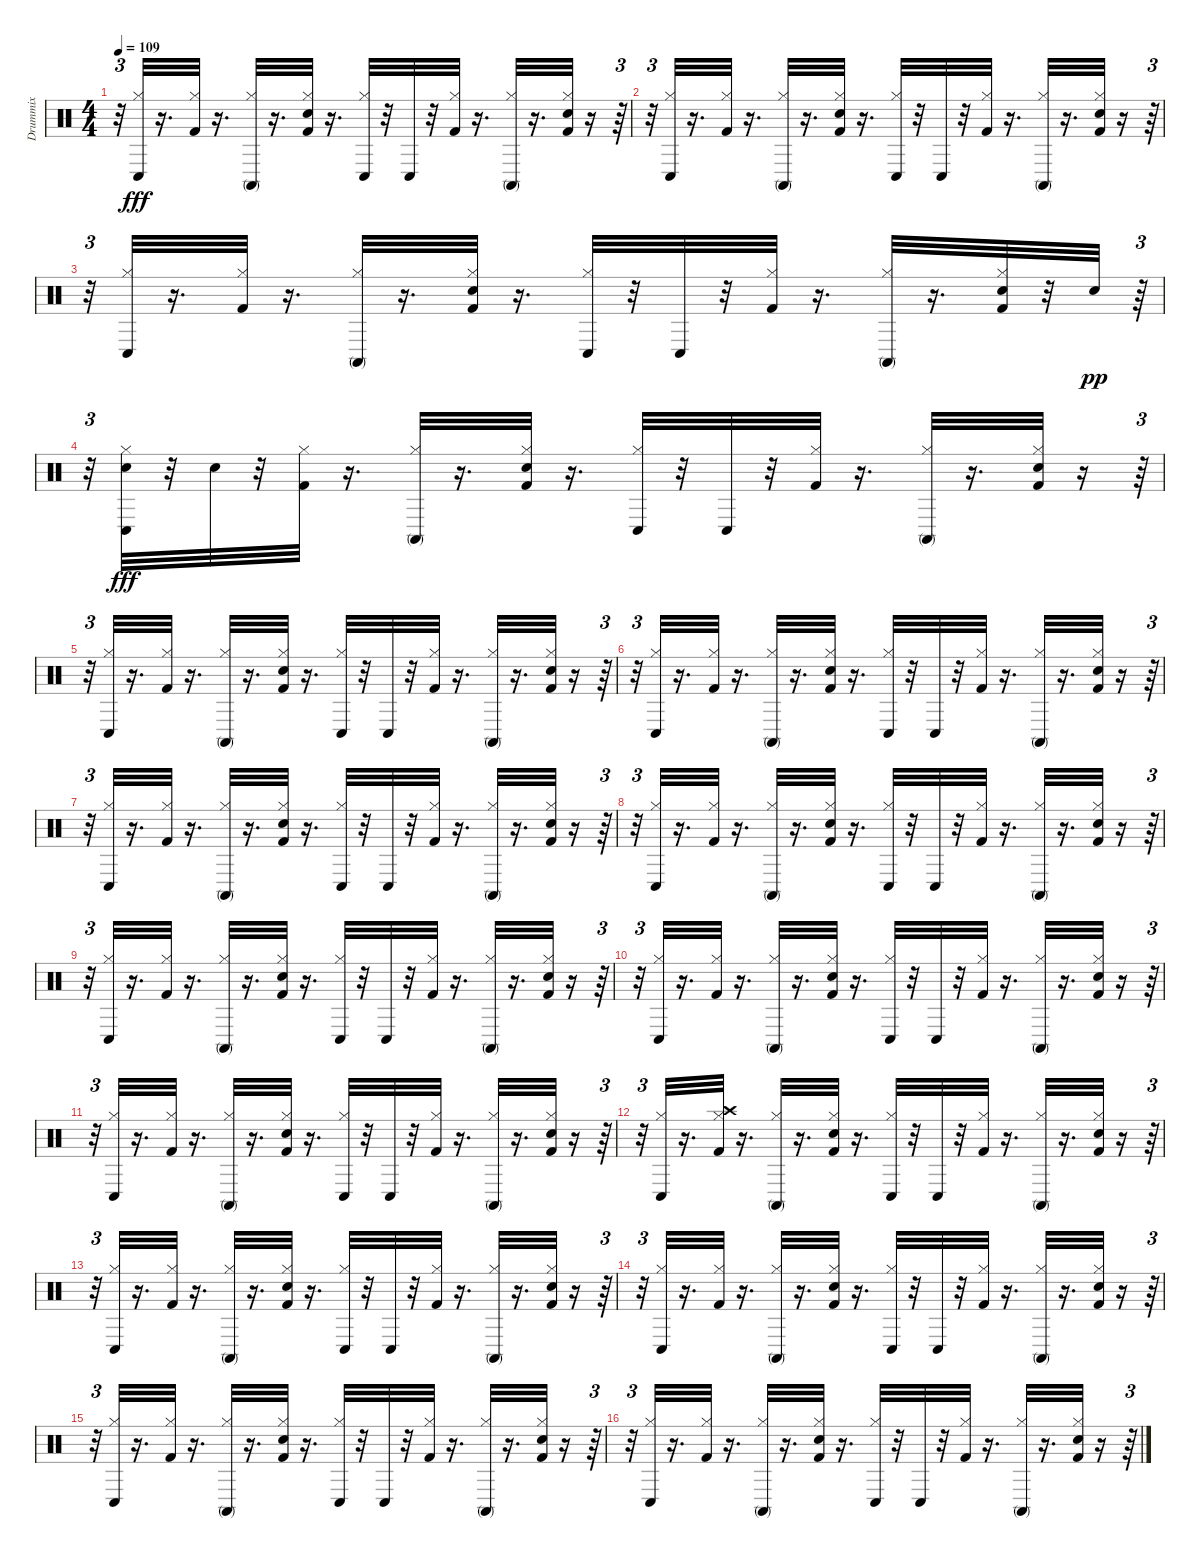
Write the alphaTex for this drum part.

\track ("Drummix" "Drummix") {instrument percussion}
\staff {score}
\articulation defaults
\ts (4 4)
\tempo 109
\clef neutral
\ks c
r.32{tu (3 2) dy fff} ("Hi-Hat (closed)" "Conga low (hit)").32 r.16{d} ("Kick (hit) 2" "Hi-Hat (closed)").32 r.16{d} ("Hi-Hat (closed)" "Conga high (mute)").32 r.16{d} ("Kick (hit) 2" "Snare (hit) 2" "Hi-Hat (closed)").32 r.16{d} ("Hi-Hat (closed)" "Conga low (hit)").32 r.32 "Conga low (hit)".32 r.32 ("Kick (hit) 2" "Hi-Hat (closed)").32 r.16{d} ("Hi-Hat (closed)" "Conga high (mute)").32 r.16{d} ("Kick (hit) 2" "Snare (hit) 2" "Hi-Hat (closed)").32 r.16 r.64{tu (3 2)} |
r.32{tu (3 2)} ("Hi-Hat (closed)" "Conga low (hit)").32 r.16{d} ("Kick (hit) 2" "Hi-Hat (closed)").32 r.16{d} ("Hi-Hat (closed)" "Conga high (mute)").32 r.16{d} ("Kick (hit) 2" "Snare (hit) 2" "Hi-Hat (closed)").32 r.16{d} ("Hi-Hat (closed)" "Conga low (hit)").32 r.32 "Conga low (hit)".32 r.32 ("Kick (hit) 2" "Hi-Hat (closed)").32 r.16{d} ("Hi-Hat (closed)" "Conga high (mute)").32 r.16{d} ("Kick (hit) 2" "Snare (hit) 2" "Hi-Hat (closed)").32 r.16 r.64{tu (3 2)} |
r.32{tu (3 2)} ("Hi-Hat (closed)" "Conga low (hit)").32 r.16{d} ("Kick (hit) 2" "Hi-Hat (closed)").32 r.16{d} ("Hi-Hat (closed)" "Conga high (mute)").32 r.16{d} ("Kick (hit) 2" "Snare (hit) 2" "Hi-Hat (closed)").32 r.16{d} ("Hi-Hat (closed)" "Conga low (hit)").32 r.32 "Conga low (hit)".32 r.32 ("Kick (hit) 2" "Hi-Hat (closed)").32 r.16{d} ("Hi-Hat (closed)" "Conga high (mute)").32 r.16{d} ("Kick (hit) 2" "Snare (hit) 2" "Hi-Hat (closed)").32 r.32 "Snare (hit) 2".32{dy pp} r.64{tu (3 2)} |
r.32{tu (3 2)} ("Snare (hit) 2" "Hi-Hat (closed)" "Conga low (hit)").32{dy fff} r.32 "Snare (hit) 2".32 r.32 ("Kick (hit) 2" "Hi-Hat (closed)").32 r.16{d} ("Hi-Hat (closed)" "Conga high (mute)").32 r.16{d} ("Kick (hit) 2" "Snare (hit) 2" "Hi-Hat (closed)").32 r.16{d} ("Hi-Hat (closed)" "Conga low (hit)").32 r.32 "Conga low (hit)".32 r.32 ("Kick (hit) 2" "Hi-Hat (closed)").32 r.16{d} ("Hi-Hat (closed)" "Conga high (mute)").32 r.16{d} ("Kick (hit) 2" "Snare (hit) 2" "Hi-Hat (closed)").32 r.16 r.64{tu (3 2)} |
r.32{tu (3 2)} ("Hi-Hat (closed)" "Conga low (hit)").32 r.16{d} ("Kick (hit) 2" "Hi-Hat (closed)").32 r.16{d} ("Hi-Hat (closed)" "Conga high (mute)").32 r.16{d} ("Kick (hit) 2" "Snare (hit) 2" "Hi-Hat (closed)").32 r.16{d} ("Hi-Hat (closed)" "Conga low (hit)").32 r.32 "Conga low (hit)".32 r.32 ("Kick (hit) 2" "Hi-Hat (closed)").32 r.16{d} ("Hi-Hat (closed)" "Conga high (mute)").32 r.16{d} ("Kick (hit) 2" "Snare (hit) 2" "Hi-Hat (closed)").32 r.16 r.64{tu (3 2)} |
r.32{tu (3 2)} ("Hi-Hat (closed)" "Conga low (hit)").32 r.16{d} ("Kick (hit) 2" "Hi-Hat (closed)").32 r.16{d} ("Hi-Hat (closed)" "Conga high (mute)").32 r.16{d} ("Kick (hit) 2" "Snare (hit) 2" "Hi-Hat (closed)").32 r.16{d} ("Hi-Hat (closed)" "Conga low (hit)").32 r.32 "Conga low (hit)".32 r.32 ("Kick (hit) 2" "Hi-Hat (closed)").32 r.16{d} ("Hi-Hat (closed)" "Conga high (mute)").32 r.16{d} ("Kick (hit) 2" "Snare (hit) 2" "Hi-Hat (closed)").32 r.16 r.64{tu (3 2)} |
r.32{tu (3 2)} ("Hi-Hat (closed)" "Conga low (hit)").32 r.16{d} ("Kick (hit) 2" "Hi-Hat (closed)").32 r.16{d} ("Hi-Hat (closed)" "Conga high (mute)").32 r.16{d} ("Kick (hit) 2" "Snare (hit) 2" "Hi-Hat (closed)").32 r.16{d} ("Hi-Hat (closed)" "Conga low (hit)").32 r.32 "Conga low (hit)".32 r.32 ("Kick (hit) 2" "Hi-Hat (closed)").32 r.16{d} ("Hi-Hat (closed)" "Conga high (mute)").32 r.16{d} ("Kick (hit) 2" "Snare (hit) 2" "Hi-Hat (closed)").32 r.16 r.64{tu (3 2)} |
r.32{tu (3 2)} ("Hi-Hat (closed)" "Conga low (hit)").32 r.16{d} ("Kick (hit) 2" "Hi-Hat (closed)").32 r.16{d} ("Hi-Hat (closed)" "Conga high (mute)").32 r.16{d} ("Kick (hit) 2" "Snare (hit) 2" "Hi-Hat (closed)").32 r.16{d} ("Hi-Hat (closed)" "Conga low (hit)").32 r.32 "Conga low (hit)".32 r.32 ("Kick (hit) 2" "Hi-Hat (closed)").32 r.16{d} ("Hi-Hat (closed)" "Conga high (mute)").32 r.16{d} ("Kick (hit) 2" "Snare (hit) 2" "Hi-Hat (closed)").32 r.16 r.64{tu (3 2)} |
r.32{tu (3 2)} ("Hi-Hat (closed)" "Conga low (hit)").32 r.16{d} ("Kick (hit) 2" "Hi-Hat (closed)").32 r.16{d} ("Hi-Hat (closed)" "Conga high (mute)").32 r.16{d} ("Kick (hit) 2" "Snare (hit) 2" "Hi-Hat (closed)").32 r.16{d} ("Hi-Hat (closed)" "Conga low (hit)").32 r.32 "Conga low (hit)".32 r.32 ("Kick (hit) 2" "Hi-Hat (closed)").32 r.16{d} ("Hi-Hat (closed)" "Conga high (mute)").32 r.16{d} ("Kick (hit) 2" "Snare (hit) 2" "Hi-Hat (closed)").32 r.16 r.64{tu (3 2)} |
r.32{tu (3 2)} ("Hi-Hat (closed)" "Conga low (hit)").32 r.16{d} ("Kick (hit) 2" "Hi-Hat (closed)").32 r.16{d} ("Hi-Hat (closed)" "Conga high (mute)").32 r.16{d} ("Kick (hit) 2" "Snare (hit) 2" "Hi-Hat (closed)").32 r.16{d} ("Hi-Hat (closed)" "Conga low (hit)").32 r.32 "Conga low (hit)".32 r.32 ("Kick (hit) 2" "Hi-Hat (closed)").32 r.16{d} ("Hi-Hat (closed)" "Conga high (mute)").32 r.16{d} ("Kick (hit) 2" "Snare (hit) 2" "Hi-Hat (closed)").32 r.16 r.64{tu (3 2)} |
r.32{tu (3 2)} ("Hi-Hat (closed)" "Conga low (hit)").32 r.16{d} ("Kick (hit) 2" "Hi-Hat (closed)").32 r.16{d} ("Hi-Hat (closed)" "Conga high (mute)").32 r.16{d} ("Kick (hit) 2" "Snare (hit) 2" "Hi-Hat (closed)").32 r.16{d} ("Hi-Hat (closed)" "Conga low (hit)").32 r.32 "Conga low (hit)".32 r.32 ("Kick (hit) 2" "Hi-Hat (closed)").32 r.16{d} ("Hi-Hat (closed)" "Conga high (mute)").32 r.16{d} ("Kick (hit) 2" "Snare (hit) 2" "Hi-Hat (closed)").32 r.16 r.64{tu (3 2)} |
r.32{tu (3 2)} ("Hi-Hat (closed)" "Conga low (hit)").32 r.16{d} ("Kick (hit) 2" "Hi-Hat (closed)" "Crash high (hit)").32 r.16{d} ("Hi-Hat (closed)" "Conga high (mute)").32 r.16{d} ("Kick (hit) 2" "Snare (hit) 2" "Hi-Hat (closed)").32 r.16{d} ("Hi-Hat (closed)" "Conga low (hit)").32 r.32 "Conga low (hit)".32 r.32 ("Kick (hit) 2" "Hi-Hat (closed)").32 r.16{d} ("Hi-Hat (closed)" "Conga high (mute)").32 r.16{d} ("Kick (hit) 2" "Snare (hit) 2" "Hi-Hat (closed)").32 r.16 r.64{tu (3 2)} |
r.32{tu (3 2)} ("Hi-Hat (closed)" "Conga low (hit)").32 r.16{d} ("Kick (hit) 2" "Hi-Hat (closed)").32 r.16{d} ("Hi-Hat (closed)" "Conga high (mute)").32 r.16{d} ("Kick (hit) 2" "Snare (hit) 2" "Hi-Hat (closed)").32 r.16{d} ("Hi-Hat (closed)" "Conga low (hit)").32 r.32 "Conga low (hit)".32 r.32 ("Kick (hit) 2" "Hi-Hat (closed)").32 r.16{d} ("Hi-Hat (closed)" "Conga high (mute)").32 r.16{d} ("Kick (hit) 2" "Snare (hit) 2" "Hi-Hat (closed)").32 r.16 r.64{tu (3 2)} |
r.32{tu (3 2)} ("Hi-Hat (closed)" "Conga low (hit)").32 r.16{d} ("Kick (hit) 2" "Hi-Hat (closed)").32 r.16{d} ("Hi-Hat (closed)" "Conga high (mute)").32 r.16{d} ("Kick (hit) 2" "Snare (hit) 2" "Hi-Hat (closed)").32 r.16{d} ("Hi-Hat (closed)" "Conga low (hit)").32 r.32 "Conga low (hit)".32 r.32 ("Kick (hit) 2" "Hi-Hat (closed)").32 r.16{d} ("Hi-Hat (closed)" "Conga high (mute)").32 r.16{d} ("Kick (hit) 2" "Snare (hit) 2" "Hi-Hat (closed)").32 r.16 r.64{tu (3 2)} |
r.32{tu (3 2)} ("Hi-Hat (closed)" "Conga low (hit)").32 r.16{d} ("Kick (hit) 2" "Hi-Hat (closed)").32 r.16{d} ("Hi-Hat (closed)" "Conga high (mute)").32 r.16{d} ("Kick (hit) 2" "Snare (hit) 2" "Hi-Hat (closed)").32 r.16{d} ("Hi-Hat (closed)" "Conga low (hit)").32 r.32 "Conga low (hit)".32 r.32 ("Kick (hit) 2" "Hi-Hat (closed)").32 r.16{d} ("Hi-Hat (closed)" "Conga high (mute)").32 r.16{d} ("Kick (hit) 2" "Snare (hit) 2" "Hi-Hat (closed)").32 r.16 r.64{tu (3 2)} |
r.32{tu (3 2)} ("Hi-Hat (closed)" "Conga low (hit)").32 r.16{d} ("Kick (hit) 2" "Hi-Hat (closed)").32 r.16{d} ("Hi-Hat (closed)" "Conga high (mute)").32 r.16{d} ("Kick (hit) 2" "Snare (hit) 2" "Hi-Hat (closed)").32 r.16{d} ("Hi-Hat (closed)" "Conga low (hit)").32 r.32 "Conga low (hit)".32 r.32 ("Kick (hit) 2" "Hi-Hat (closed)").32 r.16{d} ("Hi-Hat (closed)" "Conga high (mute)").32 r.16{d} ("Kick (hit) 2" "Snare (hit) 2" "Hi-Hat (closed)").32 r.16 r.64{tu (3 2)}
